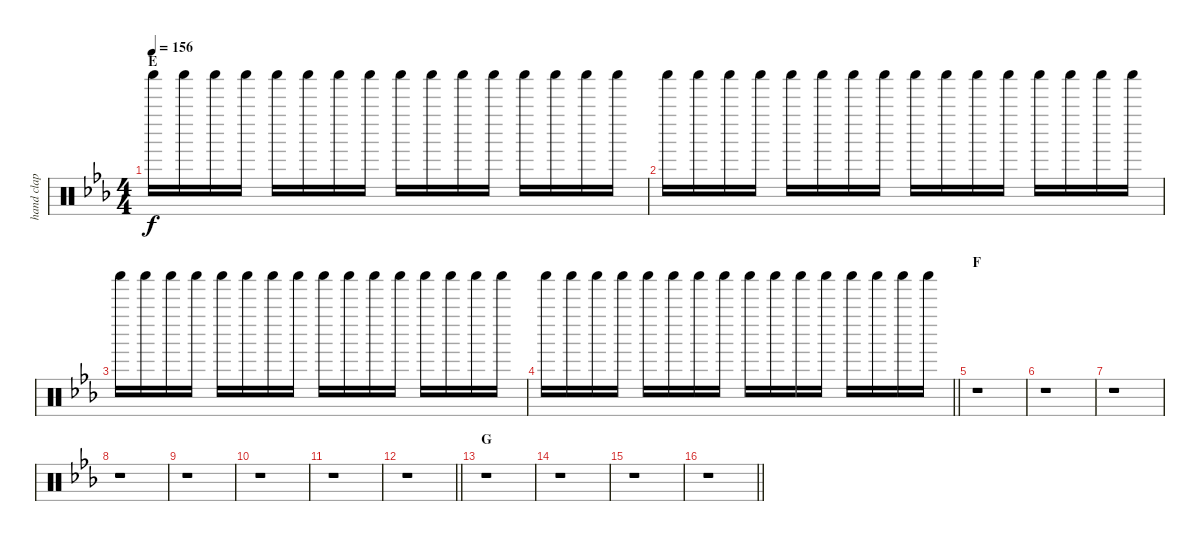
\track ("hand clap + shaker" "hand clap ") {instrument percussion}
\staff {score}
\articulation defaults
\ts (4 4)
\section ("" "E")
\tempo 156
\clef neutral
\ks eb "Shaker (hit)".16{dy f} "Shaker (hit)".16 "Shaker (hit)".16 "Shaker (hit)".16 "Shaker (hit)".16 "Shaker (hit)".16 "Shaker (hit)".16 "Shaker (hit)".16 "Shaker (hit)".16 "Shaker (hit)".16 "Shaker (hit)".16 "Shaker (hit)".16 "Shaker (hit)".16 "Shaker (hit)".16 "Shaker (hit)".16 "Shaker (hit)".16
|
"Shaker (hit)".16 "Shaker (hit)".16 "Shaker (hit)".16 "Shaker (hit)".16 "Shaker (hit)".16 "Shaker (hit)".16 "Shaker (hit)".16 "Shaker (hit)".16 "Shaker (hit)".16 "Shaker (hit)".16 "Shaker (hit)".16 "Shaker (hit)".16 "Shaker (hit)".16 "Shaker (hit)".16 "Shaker (hit)".16 "Shaker (hit)".16 |
"Shaker (hit)".16 "Shaker (hit)".16 "Shaker (hit)".16 "Shaker (hit)".16 "Shaker (hit)".16 "Shaker (hit)".16 "Shaker (hit)".16 "Shaker (hit)".16 "Shaker (hit)".16 "Shaker (hit)".16 "Shaker (hit)".16 "Shaker (hit)".16 "Shaker (hit)".16 "Shaker (hit)".16 "Shaker (hit)".16 "Shaker (hit)".16 |
\barLineRight lightlight "Shaker (hit)".16 "Shaker (hit)".16 "Shaker (hit)".16 "Shaker (hit)".16 "Shaker (hit)".16 "Shaker (hit)".16 "Shaker (hit)".16 "Shaker (hit)".16 "Shaker (hit)".16 "Shaker (hit)".16 "Shaker (hit)".16 "Shaker (hit)".16 "Shaker (hit)".16 "Shaker (hit)".16 "Shaker (hit)".16 "Shaker (hit)".16
|
\section ("" "F")
r.1 |
r.1 |
r.1 |
r.1 |
r.1 |
r.1 |
r.1 |
\barLineRight lightlight
r.1 |
\section ("" "G")
r.1 |
r.1 |
r.1 |
\barLineRight lightlight
r.1
